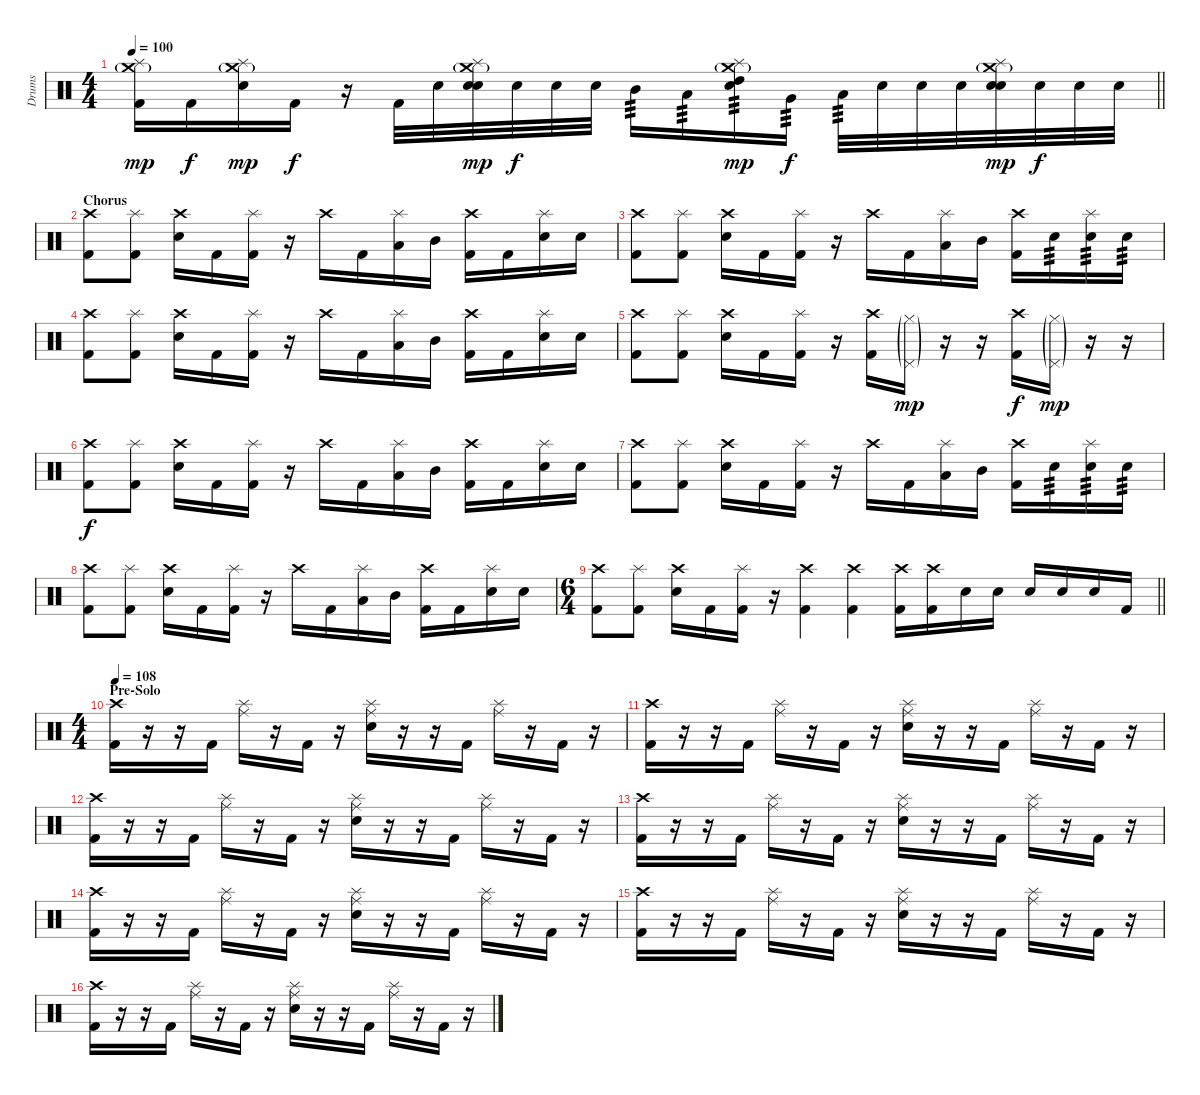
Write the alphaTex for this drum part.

\track ("Drums" "Drums") {instrument percussion}
\staff {score}
\articulation defaults
\ts (4 4)
\tempo 100
\clef neutral
\barLineRight lightlight
\ks c
("Crash medium (hit)"{g} "Splash (hit)" "Kick (hit) 2").16{dy mp} "Kick (hit) 2".16{dy f} ("Crash medium (hit)"{g} "Splash (hit)" "Electric Snare (hit)").16{dy mp} "Kick (hit) 2".16{dy f} r.16 "Kick (hit) 2".32 "Electric Snare (hit)".32 ("Crash medium (hit)"{g} "Splash (hit)" "Electric Snare (hit)" "Electric Snare (hit)").32{dy mp} "Electric Snare (hit)".32{dy f} "Electric Snare (hit)".32 "Electric Snare (hit)".32 "Mid Tom (hit)".16{tp 3} "Low Tom (hit)".16{tp 3} ("Crash medium (hit)"{g} "Splash (hit)" "Electric Snare (hit)" "High Tom (hit)").16{tp 3 dy mp} "Very Low Tom (hit)".16{tp 3 dy f} "Low Tom (hit)".32{tp 3} "Electric Snare (hit)".32 "Electric Snare (hit)".32 "Electric Snare (hit)".32 ("Crash medium (hit)"{g} "Splash (hit)" "Electric Snare (hit)" "Electric Snare (hit)").32{dy mp} "Electric Snare (hit)".32{dy f} "Electric Snare (hit)".32 "Electric Snare (hit)".32 |
\section ("" "Chorus")
("Crash high (hit)" "Kick (hit) 2").8 ("Splash (hit)" "Kick (hit) 2").8 ("Crash high (hit)" "Electric Snare (hit)").16 "Kick (hit) 2".16 ("Splash (hit)" "Kick (hit) 2").16 r.16 "Crash high (hit)".16 "Kick (hit) 2".16 ("Splash (hit)" "Low Tom (hit)").16 "Mid Tom (hit)".16 ("Crash high (hit)" "Kick (hit) 2").16 "Kick (hit) 2".16 ("Splash (hit)" "Electric Snare (hit)").16 "Electric Snare (hit)".16 |
("Crash high (hit)" "Kick (hit) 2").8 ("Splash (hit)" "Kick (hit) 2").8 ("Crash high (hit)" "Electric Snare (hit)").16 "Kick (hit) 2".16 ("Splash (hit)" "Kick (hit) 2").16 r.16 "Crash high (hit)".16 "Kick (hit) 2".16 ("Splash (hit)" "Low Tom (hit)").16 "Mid Tom (hit)".16 ("Crash high (hit)" "Kick (hit) 2").16 "Electric Snare (hit)".16{tp 3} ("Splash (hit)" "Electric Snare (hit)").16{tp 3} "Electric Snare (hit)".16{tp 3} |
("Crash high (hit)" "Kick (hit) 2").8 ("Splash (hit)" "Kick (hit) 2").8 ("Crash high (hit)" "Electric Snare (hit)").16 "Kick (hit) 2".16 ("Splash (hit)" "Kick (hit) 2").16 r.16 "Crash high (hit)".16 "Kick (hit) 2".16 ("Splash (hit)" "Low Tom (hit)").16 "Mid Tom (hit)".16 ("Crash high (hit)" "Kick (hit) 2").16 "Kick (hit) 2".16 ("Splash (hit)" "Electric Snare (hit)").16 "Electric Snare (hit)".16 |
("Crash high (hit)" "Kick (hit) 2").8 ("Splash (hit)" "Kick (hit) 2").8 ("Crash high (hit)" "Electric Snare (hit)").16 "Kick (hit) 2".16 ("Splash (hit)" "Kick (hit) 2").16 r.16 ("Kick (hit) 2" "Crash high (hit)").16 ("Hi-Hat (closed)"{g} "Pedal Hi-Hat (hit)"{g}).16{dy mp} r.16 r.16 ("Crash high (hit)" "Kick (hit) 2").16{dy f} ("Hi-Hat (closed)"{g} "Pedal Hi-Hat (hit)"{g}).16{dy mp} r.16 r.16 |
("Crash high (hit)" "Kick (hit) 2").8{dy f} ("Splash (hit)" "Kick (hit) 2").8 ("Crash high (hit)" "Electric Snare (hit)").16 "Kick (hit) 2".16 ("Splash (hit)" "Kick (hit) 2").16 r.16 "Crash high (hit)".16 "Kick (hit) 2".16 ("Splash (hit)" "Low Tom (hit)").16 "Mid Tom (hit)".16 ("Crash high (hit)" "Kick (hit) 2").16 "Kick (hit) 2".16 ("Splash (hit)" "Electric Snare (hit)").16 "Electric Snare (hit)".16 |
("Crash high (hit)" "Kick (hit) 2").8 ("Splash (hit)" "Kick (hit) 2").8 ("Crash high (hit)" "Electric Snare (hit)").16 "Kick (hit) 2".16 ("Splash (hit)" "Kick (hit) 2").16 r.16 "Crash high (hit)".16 "Kick (hit) 2".16 ("Splash (hit)" "Low Tom (hit)").16 "Mid Tom (hit)".16 ("Crash high (hit)" "Kick (hit) 2").16 "Electric Snare (hit)".16{tp 3} ("Splash (hit)" "Electric Snare (hit)").16{tp 3} "Electric Snare (hit)".16{tp 3} |
("Crash high (hit)" "Kick (hit) 2").8 ("Splash (hit)" "Kick (hit) 2").8 ("Crash high (hit)" "Electric Snare (hit)").16 "Kick (hit) 2".16 ("Splash (hit)" "Kick (hit) 2").16 r.16 "Crash high (hit)".16 "Kick (hit) 2".16 ("Splash (hit)" "Low Tom (hit)").16 "Mid Tom (hit)".16 ("Crash high (hit)" "Kick (hit) 2").16 "Kick (hit) 2".16 ("Splash (hit)" "Electric Snare (hit)").16 "Electric Snare (hit)".16 |
\ts (6 4)
\barLineRight lightlight
("Crash high (hit)" "Kick (hit) 2").8 ("Splash (hit)" "Kick (hit) 2").8 ("Crash high (hit)" "Electric Snare (hit)").16 "Kick (hit) 2".16 ("Splash (hit)" "Kick (hit) 2").16 r.16 ("Kick (hit) 2" "Crash high (hit)").4 ("Crash high (hit)" "Kick (hit) 2").4 ("Crash high (hit)" "Kick (hit) 2").16 ("Crash high (hit)" "Kick (hit) 2").16 "Electric Snare (hit)".16 "Electric Snare (hit)".16 "Electric Snare (hit)".16 "Electric Snare (hit)".16 "Electric Snare (hit)".16 "Kick (hit) 2".16 |
\ts (4 4)
\section ("" "Pre-Solo")
\tempo 108
("Kick (hit) 2" "Crash high (hit)").16 r.16 r.16 "Kick (hit) 2".16 ("Splash (hit)" "Ride (middle)").16 r.16 "Kick (hit) 2".16 r.16 ("Electric Snare (hit)" "Splash (hit)" "Ride (middle)").16 r.16 r.16 "Kick (hit) 2".16 ("Splash (hit)" "Ride (middle)").16 r.16 "Kick (hit) 2".16 r.16 |
("Kick (hit) 2" "Crash high (hit)").16 r.16 r.16 "Kick (hit) 2".16 ("Splash (hit)" "Ride (middle)").16 r.16 "Kick (hit) 2".16 r.16 ("Electric Snare (hit)" "Splash (hit)" "Ride (middle)").16 r.16 r.16 "Kick (hit) 2".16 ("Splash (hit)" "Ride (middle)").16 r.16 "Kick (hit) 2".16 r.16 |
("Kick (hit) 2" "Crash high (hit)").16 r.16 r.16 "Kick (hit) 2".16 ("Splash (hit)" "Ride (middle)").16 r.16 "Kick (hit) 2".16 r.16 ("Electric Snare (hit)" "Splash (hit)" "Ride (middle)").16 r.16 r.16 "Kick (hit) 2".16 ("Splash (hit)" "Ride (middle)").16 r.16 "Kick (hit) 2".16 r.16 |
("Kick (hit) 2" "Crash high (hit)").16 r.16 r.16 "Kick (hit) 2".16 ("Splash (hit)" "Ride (middle)").16 r.16 "Kick (hit) 2".16 r.16 ("Electric Snare (hit)" "Splash (hit)" "Ride (middle)").16 r.16 r.16 "Kick (hit) 2".16 ("Splash (hit)" "Ride (middle)").16 r.16 "Kick (hit) 2".16 r.16 |
("Kick (hit) 2" "Crash high (hit)").16 r.16 r.16 "Kick (hit) 2".16 ("Splash (hit)" "Ride (middle)").16 r.16 "Kick (hit) 2".16 r.16 ("Electric Snare (hit)" "Splash (hit)" "Ride (middle)").16 r.16 r.16 "Kick (hit) 2".16 ("Splash (hit)" "Ride (middle)").16 r.16 "Kick (hit) 2".16 r.16 |
("Kick (hit) 2" "Crash high (hit)").16 r.16 r.16 "Kick (hit) 2".16 ("Splash (hit)" "Ride (middle)").16 r.16 "Kick (hit) 2".16 r.16 ("Electric Snare (hit)" "Splash (hit)" "Ride (middle)").16 r.16 r.16 "Kick (hit) 2".16 ("Splash (hit)" "Ride (middle)").16 r.16 "Kick (hit) 2".16 r.16 |
("Kick (hit) 2" "Crash high (hit)").16 r.16 r.16 "Kick (hit) 2".16 ("Splash (hit)" "Ride (middle)").16 r.16 "Kick (hit) 2".16 r.16 ("Electric Snare (hit)" "Splash (hit)" "Ride (middle)").16 r.16 r.16 "Kick (hit) 2".16 ("Splash (hit)" "Ride (middle)").16 r.16 "Kick (hit) 2".16 r.16
